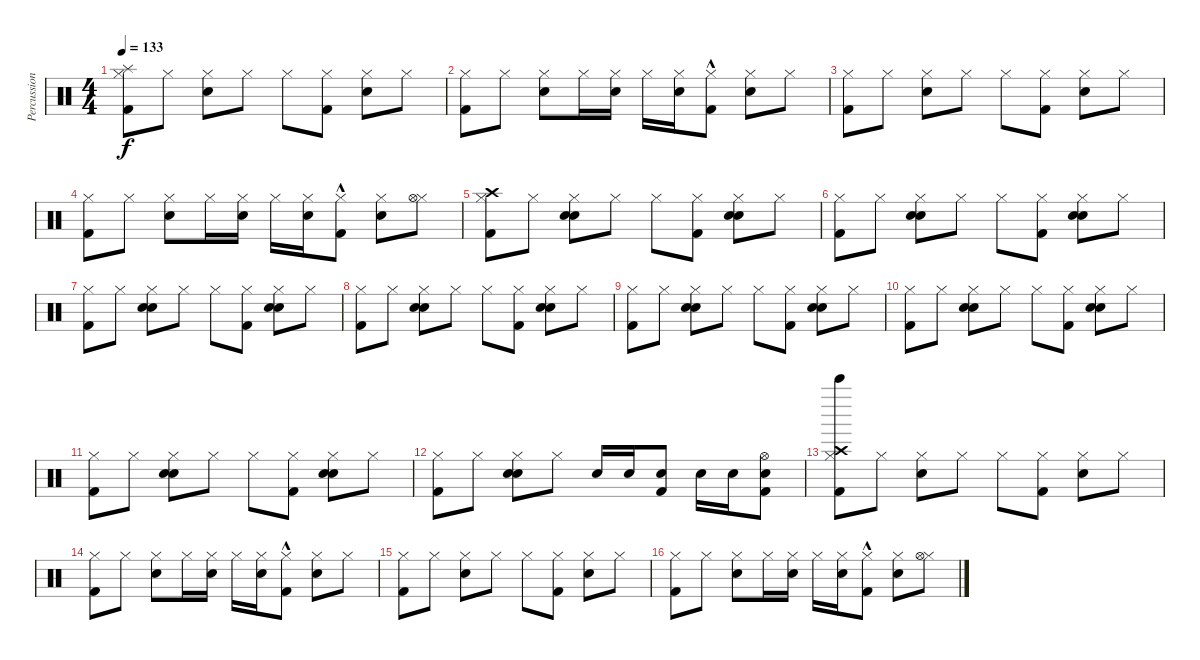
\track ("Percussion" "Percussion") {instrument percussion}
\staff {score}
\articulation defaults
\ts (4 4)
\tempo 133
\clef neutral
\ks c
("Hi-Hat (closed)" "Splash (hit)" "Kick (hit) 2").8{dy f} "Hi-Hat (closed)".8 ("Hi-Hat (closed)" "Snare (hit) 2").8 "Hi-Hat (closed)".8 "Hi-Hat (closed)".8 ("Hi-Hat (closed)" "Kick (hit) 2").8 ("Hi-Hat (closed)" "Snare (hit) 2").8 "Hi-Hat (closed)".8 |
("Hi-Hat (closed)" "Kick (hit) 2").8 "Hi-Hat (closed)".8 ("Hi-Hat (closed)" "Snare (hit) 2").8 "Hi-Hat (closed)".16 ("Hi-Hat (closed)" "Snare (hit) 2").16 "Hi-Hat (closed)".16 ("Hi-Hat (closed)" "Snare (hit) 2").16 ("Hi-Hat (closed)" "Kick (hit) 2"{hac}).8 ("Hi-Hat (closed)" "Snare (hit) 2").8 "Hi-Hat (closed)".8 |
("Hi-Hat (closed)" "Kick (hit) 2").8 "Hi-Hat (closed)".8 ("Hi-Hat (closed)" "Snare (hit) 2").8 "Hi-Hat (closed)".8 "Hi-Hat (closed)".8 ("Hi-Hat (closed)" "Kick (hit) 2").8 ("Hi-Hat (closed)" "Snare (hit) 2").8 "Hi-Hat (closed)".8 |
("Hi-Hat (closed)" "Kick (hit) 2").8 "Hi-Hat (closed)".8 ("Hi-Hat (closed)" "Snare (hit) 2").8 "Hi-Hat (closed)".16 ("Hi-Hat (closed)" "Snare (hit) 2").16 "Hi-Hat (closed)".16 ("Hi-Hat (closed)" "Snare (hit) 2").16 ("Hi-Hat (closed)" "Kick (hit) 2"{hac}).8 ("Hi-Hat (closed)" "Snare (hit) 2").8 ("Hi-Hat (closed)" "Hi-Hat (open)").8 |
("Hi-Hat (closed)" "Crash high (hit)" "Kick (hit) 2").8 "Hi-Hat (closed)".8 ("Hi-Hat (closed)" "Hand Clap (hit)" "Snare (hit) 2").8 "Hi-Hat (closed)".8 "Hi-Hat (closed)".8 ("Hi-Hat (closed)" "Kick (hit) 2").8 ("Hi-Hat (closed)" "Hand Clap (hit)" "Snare (hit) 2").8 "Hi-Hat (closed)".8 |
("Hi-Hat (closed)" "Kick (hit) 2").8 "Hi-Hat (closed)".8 ("Hi-Hat (closed)" "Hand Clap (hit)" "Snare (hit) 2").8 "Hi-Hat (closed)".8 "Hi-Hat (closed)".8 ("Hi-Hat (closed)" "Kick (hit) 2").8 ("Hi-Hat (closed)" "Hand Clap (hit)" "Snare (hit) 2").8 "Hi-Hat (closed)".8 |
("Hi-Hat (closed)" "Kick (hit) 2").8 "Hi-Hat (closed)".8 ("Hi-Hat (closed)" "Hand Clap (hit)" "Snare (hit) 2").8 "Hi-Hat (closed)".8 "Hi-Hat (closed)".8 ("Hi-Hat (closed)" "Kick (hit) 2").8 ("Hi-Hat (closed)" "Hand Clap (hit)" "Snare (hit) 2").8 "Hi-Hat (closed)".8 |
("Hi-Hat (closed)" "Kick (hit) 2").8 "Hi-Hat (closed)".8 ("Hi-Hat (closed)" "Hand Clap (hit)" "Snare (hit) 2").8 "Hi-Hat (closed)".8 "Hi-Hat (closed)".8 ("Hi-Hat (closed)" "Kick (hit) 2").8 ("Hi-Hat (closed)" "Hand Clap (hit)" "Snare (hit) 2").8 "Hi-Hat (closed)".8 |
("Hi-Hat (closed)" "Kick (hit) 2").8 "Hi-Hat (closed)".8 ("Hi-Hat (closed)" "Hand Clap (hit)" "Snare (hit) 2").8 "Hi-Hat (closed)".8 "Hi-Hat (closed)".8 ("Hi-Hat (closed)" "Kick (hit) 2").8 ("Hi-Hat (closed)" "Hand Clap (hit)" "Snare (hit) 2").8 "Hi-Hat (closed)".8 |
("Hi-Hat (closed)" "Kick (hit) 2").8 "Hi-Hat (closed)".8 ("Hi-Hat (closed)" "Hand Clap (hit)" "Snare (hit) 2").8 "Hi-Hat (closed)".8 "Hi-Hat (closed)".8 ("Hi-Hat (closed)" "Kick (hit) 2").8 ("Hi-Hat (closed)" "Hand Clap (hit)" "Snare (hit) 2").8 "Hi-Hat (closed)".8 |
("Hi-Hat (closed)" "Kick (hit) 2").8 "Hi-Hat (closed)".8 ("Hi-Hat (closed)" "Hand Clap (hit)" "Snare (hit) 2").8 "Hi-Hat (closed)".8 "Hi-Hat (closed)".8 ("Hi-Hat (closed)" "Kick (hit) 2").8 ("Hi-Hat (closed)" "Hand Clap (hit)" "Snare (hit) 2").8 "Hi-Hat (closed)".8 |
("Hi-Hat (closed)" "Kick (hit) 2").8 "Hi-Hat (closed)".8 ("Hi-Hat (closed)" "Hand Clap (hit)" "Snare (hit) 2").8 "Hi-Hat (closed)".8 "Snare (hit) 2".16 "Snare (hit) 2".16 ("Snare (hit) 2" "Kick (hit) 2").8 "Snare (hit) 2".16 "Snare (hit) 2".16 ("Hi-Hat (open)" "Snare (hit) 2" "Kick (hit) 2").8 |
("Hi-Hat (closed)" "Bell Tree (hit)" "Crash high (hit)" "Kick (hit) 2").8 "Hi-Hat (closed)".8 ("Hi-Hat (closed)" "Snare (hit) 2").8 "Hi-Hat (closed)".8 "Hi-Hat (closed)".8 ("Hi-Hat (closed)" "Kick (hit) 2").8 ("Hi-Hat (closed)" "Snare (hit) 2").8 "Hi-Hat (closed)".8 |
("Hi-Hat (closed)" "Kick (hit) 2").8 "Hi-Hat (closed)".8 ("Hi-Hat (closed)" "Snare (hit) 2").8 "Hi-Hat (closed)".16 ("Hi-Hat (closed)" "Snare (hit) 2").16 "Hi-Hat (closed)".16 ("Hi-Hat (closed)" "Snare (hit) 2").16 ("Hi-Hat (closed)" "Kick (hit) 2"{hac}).8 ("Hi-Hat (closed)" "Snare (hit) 2").8 "Hi-Hat (closed)".8 |
("Hi-Hat (closed)" "Kick (hit) 2").8 "Hi-Hat (closed)".8 ("Hi-Hat (closed)" "Snare (hit) 2").8 "Hi-Hat (closed)".8 "Hi-Hat (closed)".8 ("Hi-Hat (closed)" "Kick (hit) 2").8 ("Hi-Hat (closed)" "Snare (hit) 2").8 "Hi-Hat (closed)".8 |
("Hi-Hat (closed)" "Kick (hit) 2").8 "Hi-Hat (closed)".8 ("Hi-Hat (closed)" "Snare (hit) 2").8 "Hi-Hat (closed)".16 ("Hi-Hat (closed)" "Snare (hit) 2").16 "Hi-Hat (closed)".16 ("Hi-Hat (closed)" "Snare (hit) 2").16 ("Hi-Hat (closed)" "Kick (hit) 2"{hac}).8 ("Hi-Hat (closed)" "Snare (hit) 2").8 ("Hi-Hat (closed)" "Hi-Hat (open)").8
